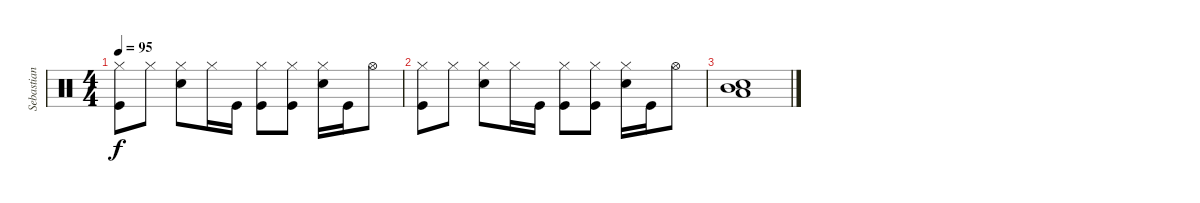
\track ("Sebastian" "Sebastian") {instrument percussion}
\staff {score}
\articulation defaults
\ts (4 4)
\tempo 95
\clef neutral
\ks c
("Kick (hit)" "Hi-Hat (closed)").8{dy f} "Hi-Hat (closed)".8 ("Snare (hit) 2" "Hi-Hat (closed)").8 "Hi-Hat (closed)".16 "Kick (hit)".16 ("Kick (hit)" "Hi-Hat (closed)").8 ("Kick (hit)" "Hi-Hat (closed)").8 ("Snare (hit) 2" "Hi-Hat (closed)").16 "Kick (hit)".16 "Hi-Hat (open)".8 |
("Kick (hit)" "Hi-Hat (closed)").8 "Hi-Hat (closed)".8 ("Snare (hit) 2" "Hi-Hat (closed)").8 "Hi-Hat (closed)".16 "Kick (hit)".16 ("Kick (hit)" "Hi-Hat (closed)").8 ("Kick (hit)" "Hi-Hat (closed)").8 ("Snare (hit) 2" "Hi-Hat (closed)").16 "Kick (hit)".16 "Hi-Hat (open)".8 |
("Snare (hit) 2" "Mid Tom (hit)" "Low Tom (hit)").1
